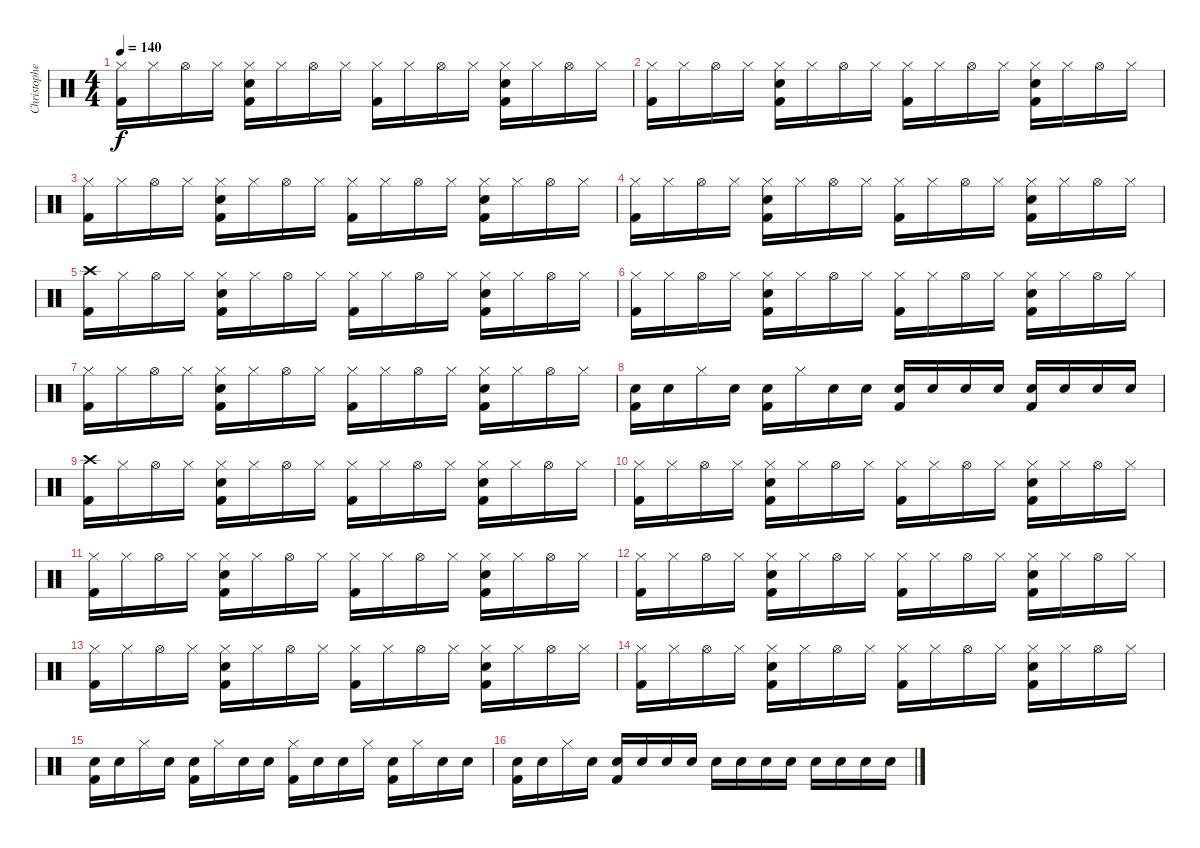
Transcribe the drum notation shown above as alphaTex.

\track ("Christopher Lawrence " "Christophe") {instrument percussion}
\staff {score}
\articulation defaults
\ts (4 4)
\tempo 140
\clef neutral
\ks c
("Hi-Hat (closed)" "Kick (hit) 2").16{dy f} "Hi-Hat (closed)".16 "Hi-Hat (open)".16 "Hi-Hat (closed)".16 ("Hi-Hat (closed)" "Hand Clap (hit)" "Kick (hit) 2").16 "Hi-Hat (closed)".16 "Hi-Hat (open)".16 "Hi-Hat (closed)".16 ("Hi-Hat (closed)" "Kick (hit) 2").16 "Hi-Hat (closed)".16 "Hi-Hat (open)".16 "Hi-Hat (closed)".16 ("Hi-Hat (closed)" "Hand Clap (hit)" "Kick (hit) 2").16 "Hi-Hat (closed)".16 "Hi-Hat (open)".16 "Hi-Hat (closed)".16 |
("Hi-Hat (closed)" "Kick (hit) 2").16 "Hi-Hat (closed)".16 "Hi-Hat (open)".16 "Hi-Hat (closed)".16 ("Hi-Hat (closed)" "Hand Clap (hit)" "Kick (hit) 2").16 "Hi-Hat (closed)".16 "Hi-Hat (open)".16 "Hi-Hat (closed)".16 ("Hi-Hat (closed)" "Kick (hit) 2").16 "Hi-Hat (closed)".16 "Hi-Hat (open)".16 "Hi-Hat (closed)".16 ("Hi-Hat (closed)" "Hand Clap (hit)" "Kick (hit) 2").16 "Hi-Hat (closed)".16 "Hi-Hat (open)".16 "Hi-Hat (closed)".16 |
("Hi-Hat (closed)" "Kick (hit) 2").16 "Hi-Hat (closed)".16 "Hi-Hat (open)".16 "Hi-Hat (closed)".16 ("Hi-Hat (closed)" "Hand Clap (hit)" "Kick (hit) 2").16 "Hi-Hat (closed)".16 "Hi-Hat (open)".16 "Hi-Hat (closed)".16 ("Hi-Hat (closed)" "Kick (hit) 2").16 "Hi-Hat (closed)".16 "Hi-Hat (open)".16 "Hi-Hat (closed)".16 ("Hi-Hat (closed)" "Hand Clap (hit)" "Kick (hit) 2").16 "Hi-Hat (closed)".16 "Hi-Hat (open)".16 "Hi-Hat (closed)".16 |
("Hi-Hat (closed)" "Kick (hit) 2").16 "Hi-Hat (closed)".16 "Hi-Hat (open)".16 "Hi-Hat (closed)".16 ("Hi-Hat (closed)" "Hand Clap (hit)" "Kick (hit) 2").16 "Hi-Hat (closed)".16 "Hi-Hat (open)".16 "Hi-Hat (closed)".16 ("Hi-Hat (closed)" "Kick (hit) 2").16 "Hi-Hat (closed)".16 "Hi-Hat (open)".16 "Hi-Hat (closed)".16 ("Hi-Hat (closed)" "Hand Clap (hit)" "Kick (hit) 2").16 "Hi-Hat (closed)".16 "Hi-Hat (open)".16 "Hi-Hat (closed)".16 |
("Crash high (hit)" "Kick (hit) 2").16 "Hi-Hat (closed)".16 "Hi-Hat (open)".16 "Hi-Hat (closed)".16 ("Hi-Hat (closed)" "Hand Clap (hit)" "Kick (hit) 2").16 "Hi-Hat (closed)".16 "Hi-Hat (open)".16 "Hi-Hat (closed)".16 ("Hi-Hat (closed)" "Kick (hit) 2").16 "Hi-Hat (closed)".16 "Hi-Hat (open)".16 "Hi-Hat (closed)".16 ("Hi-Hat (closed)" "Hand Clap (hit)" "Kick (hit) 2").16 "Hi-Hat (closed)".16 "Hi-Hat (open)".16 "Hi-Hat (closed)".16 |
("Hi-Hat (closed)" "Kick (hit) 2").16 "Hi-Hat (closed)".16 "Hi-Hat (open)".16 "Hi-Hat (closed)".16 ("Hi-Hat (closed)" "Hand Clap (hit)" "Kick (hit) 2").16 "Hi-Hat (closed)".16 "Hi-Hat (open)".16 "Hi-Hat (closed)".16 ("Hi-Hat (closed)" "Kick (hit) 2").16 "Hi-Hat (closed)".16 "Hi-Hat (open)".16 "Hi-Hat (closed)".16 ("Hi-Hat (closed)" "Hand Clap (hit)" "Kick (hit) 2").16 "Hi-Hat (closed)".16 "Hi-Hat (open)".16 "Hi-Hat (closed)".16 |
("Hi-Hat (closed)" "Kick (hit) 2").16 "Hi-Hat (closed)".16 "Hi-Hat (open)".16 "Hi-Hat (closed)".16 ("Hi-Hat (closed)" "Hand Clap (hit)" "Kick (hit) 2").16 "Hi-Hat (closed)".16 "Hi-Hat (open)".16 "Hi-Hat (closed)".16 ("Hi-Hat (closed)" "Kick (hit) 2").16 "Hi-Hat (closed)".16 "Hi-Hat (open)".16 "Hi-Hat (closed)".16 ("Hi-Hat (closed)" "Hand Clap (hit)" "Kick (hit) 2").16 "Hi-Hat (closed)".16 "Hi-Hat (open)".16 "Hi-Hat (closed)".16 |
("Snare (hit) 2" "Kick (hit) 2").16 "Snare (hit) 2".16 "Hi-Hat (closed)".16 "Snare (hit) 2".16 ("Snare (hit) 2" "Kick (hit) 2").16 "Hi-Hat (closed)".16 "Snare (hit) 2".16 "Snare (hit) 2".16 ("Snare (hit) 2" "Kick (hit) 2").16 "Snare (hit) 2".16 "Snare (hit) 2".16 "Snare (hit) 2".16 ("Snare (hit) 2" "Kick (hit) 2").16 "Snare (hit) 2".16 "Snare (hit) 2".16 "Snare (hit) 2".16 |
("Crash high (hit)" "Kick (hit) 2").16 "Hi-Hat (closed)".16 "Hi-Hat (open)".16 "Hi-Hat (closed)".16 ("Hi-Hat (closed)" "Hand Clap (hit)" "Kick (hit) 2").16 "Hi-Hat (closed)".16 "Hi-Hat (open)".16 "Hi-Hat (closed)".16 ("Hi-Hat (closed)" "Kick (hit) 2").16 "Hi-Hat (closed)".16 "Hi-Hat (open)".16 "Hi-Hat (closed)".16 ("Hi-Hat (closed)" "Hand Clap (hit)" "Kick (hit) 2").16 "Hi-Hat (closed)".16 "Hi-Hat (open)".16 "Hi-Hat (closed)".16 |
("Hi-Hat (closed)" "Kick (hit) 2").16 "Hi-Hat (closed)".16 "Hi-Hat (open)".16 "Hi-Hat (closed)".16 ("Hi-Hat (closed)" "Hand Clap (hit)" "Kick (hit) 2").16 "Hi-Hat (closed)".16 "Hi-Hat (open)".16 "Hi-Hat (closed)".16 ("Hi-Hat (closed)" "Kick (hit) 2").16 "Hi-Hat (closed)".16 "Hi-Hat (open)".16 "Hi-Hat (closed)".16 ("Hi-Hat (closed)" "Hand Clap (hit)" "Kick (hit) 2").16 "Hi-Hat (closed)".16 "Hi-Hat (open)".16 "Hi-Hat (closed)".16 |
("Hi-Hat (closed)" "Kick (hit) 2").16 "Hi-Hat (closed)".16 "Hi-Hat (open)".16 "Hi-Hat (closed)".16 ("Hi-Hat (closed)" "Hand Clap (hit)" "Kick (hit) 2").16 "Hi-Hat (closed)".16 "Hi-Hat (open)".16 "Hi-Hat (closed)".16 ("Hi-Hat (closed)" "Kick (hit) 2").16 "Hi-Hat (closed)".16 "Hi-Hat (open)".16 "Hi-Hat (closed)".16 ("Hi-Hat (closed)" "Hand Clap (hit)" "Kick (hit) 2").16 "Hi-Hat (closed)".16 "Hi-Hat (open)".16 "Hi-Hat (closed)".16 |
("Hi-Hat (closed)" "Kick (hit) 2").16 "Hi-Hat (closed)".16 "Hi-Hat (open)".16 "Hi-Hat (closed)".16 ("Hi-Hat (closed)" "Hand Clap (hit)" "Kick (hit) 2").16 "Hi-Hat (closed)".16 "Hi-Hat (open)".16 "Hi-Hat (closed)".16 ("Hi-Hat (closed)" "Kick (hit) 2").16 "Hi-Hat (closed)".16 "Hi-Hat (open)".16 "Hi-Hat (closed)".16 ("Hi-Hat (closed)" "Hand Clap (hit)" "Kick (hit) 2").16 "Hi-Hat (closed)".16 "Hi-Hat (open)".16 "Hi-Hat (closed)".16 |
("Hi-Hat (closed)" "Kick (hit) 2").16 "Hi-Hat (closed)".16 "Hi-Hat (open)".16 "Hi-Hat (closed)".16 ("Hi-Hat (closed)" "Hand Clap (hit)" "Kick (hit) 2").16 "Hi-Hat (closed)".16 "Hi-Hat (open)".16 "Hi-Hat (closed)".16 ("Hi-Hat (closed)" "Kick (hit) 2").16 "Hi-Hat (closed)".16 "Hi-Hat (open)".16 "Hi-Hat (closed)".16 ("Hi-Hat (closed)" "Hand Clap (hit)" "Kick (hit) 2").16 "Hi-Hat (closed)".16 "Hi-Hat (open)".16 "Hi-Hat (closed)".16 |
("Hi-Hat (closed)" "Kick (hit) 2").16 "Hi-Hat (closed)".16 "Hi-Hat (open)".16 "Hi-Hat (closed)".16 ("Hi-Hat (closed)" "Hand Clap (hit)" "Kick (hit) 2").16 "Hi-Hat (closed)".16 "Hi-Hat (open)".16 "Hi-Hat (closed)".16 ("Hi-Hat (closed)" "Kick (hit) 2").16 "Hi-Hat (closed)".16 "Hi-Hat (open)".16 "Hi-Hat (closed)".16 ("Hi-Hat (closed)" "Hand Clap (hit)" "Kick (hit) 2").16 "Hi-Hat (closed)".16 "Hi-Hat (open)".16 "Hi-Hat (closed)".16 |
("Snare (hit) 2" "Kick (hit) 2").16 "Snare (hit) 2".16 "Hi-Hat (closed)".16 "Snare (hit) 2".16 ("Snare (hit) 2" "Kick (hit) 2").16 "Hi-Hat (closed)".16 "Snare (hit) 2".16 "Snare (hit) 2".16 ("Hi-Hat (closed)" "Kick (hit) 2").16 "Snare (hit) 2".16 "Snare (hit) 2".16 "Hi-Hat (closed)".16 ("Snare (hit) 2" "Kick (hit) 2").16 "Hi-Hat (closed)".16 "Snare (hit) 2".16 "Snare (hit) 2".16 |
("Snare (hit) 2" "Kick (hit) 2").16 "Snare (hit) 2".16 "Hi-Hat (closed)".16 "Snare (hit) 2".16 ("Snare (hit) 2" "Kick (hit) 2").16 "Snare (hit) 2".16 "Snare (hit) 2".16 "Snare (hit) 2".16 "Snare (hit) 2".16 "Snare (hit) 2".16 "Snare (hit) 2".16 "Snare (hit) 2".16 "Snare (hit) 2".16 "Snare (hit) 2".16 "Snare (hit) 2".16 "Snare (hit) 2".16
